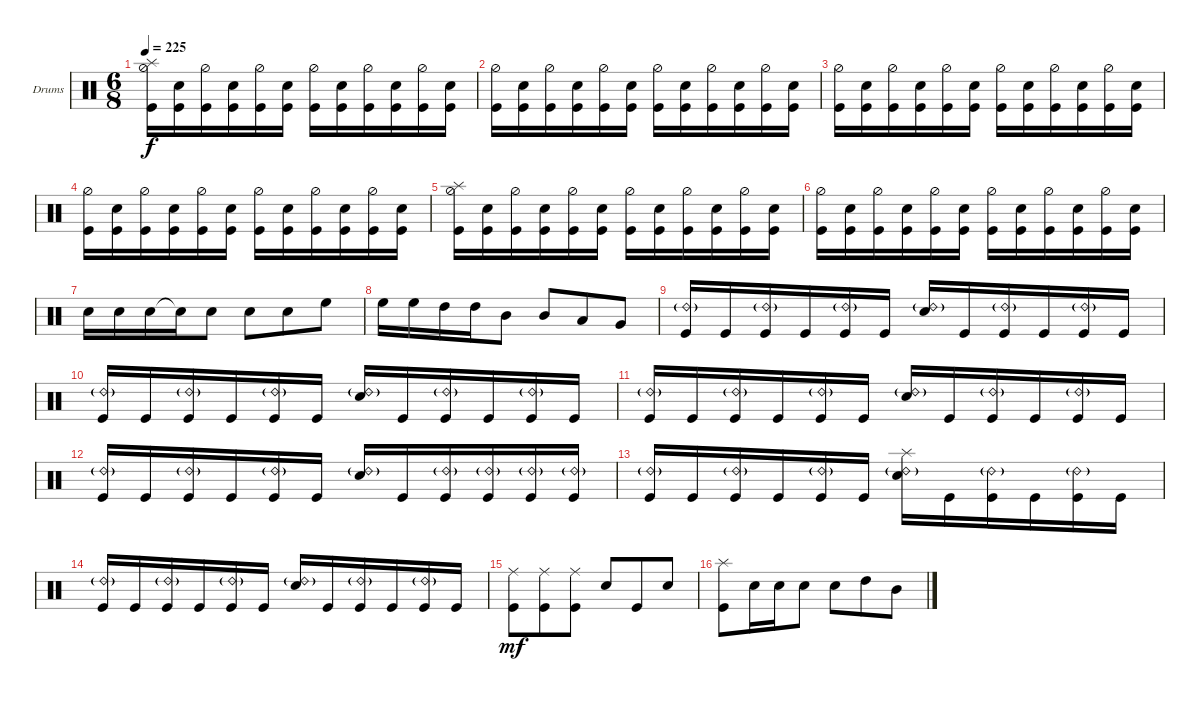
\bracketExtendMode groupsimilarinstruments
\firstSystemTrackNameOrientation horizontal
\otherSystemsTrackNameOrientation horizontal
\track ("Drumkit" "Drums") {solo instrument percussion}
\staff {score}
\articulation defaults
\ts (6 8)
\tempo 225
\clef neutral
\ks c
("Kick (hit)" "Hi-Hat (half)" "Splash (hit)").16{dy f} ("Kick (hit)" "Snare (hit) 2").16 ("Kick (hit)" "Hi-Hat (half)").16 ("Kick (hit)" "Snare (hit) 2").16 ("Kick (hit)" "Hi-Hat (half)").16 ("Kick (hit)" "Snare (hit) 2").16 ("Kick (hit)" "Hi-Hat (half)").16 ("Kick (hit)" "Snare (hit) 2").16 ("Kick (hit)" "Hi-Hat (half)").16 ("Kick (hit)" "Snare (hit) 2").16 ("Kick (hit)" "Hi-Hat (half)").16 ("Kick (hit)" "Snare (hit) 2").16 |
("Kick (hit)" "Hi-Hat (half)").16 ("Kick (hit)" "Snare (hit) 2").16 ("Kick (hit)" "Hi-Hat (half)").16 ("Kick (hit)" "Snare (hit) 2").16 ("Kick (hit)" "Hi-Hat (half)").16 ("Kick (hit)" "Snare (hit) 2").16 ("Kick (hit)" "Hi-Hat (half)").16 ("Kick (hit)" "Snare (hit) 2").16 ("Kick (hit)" "Hi-Hat (half)").16 ("Kick (hit)" "Snare (hit) 2").16 ("Kick (hit)" "Hi-Hat (half)").16 ("Kick (hit)" "Snare (hit) 2").16 |
("Kick (hit)" "Hi-Hat (half)").16 ("Kick (hit)" "Snare (hit) 2").16 ("Kick (hit)" "Hi-Hat (half)").16 ("Kick (hit)" "Snare (hit) 2").16 ("Kick (hit)" "Hi-Hat (half)").16 ("Kick (hit)" "Snare (hit) 2").16 ("Kick (hit)" "Hi-Hat (half)").16 ("Kick (hit)" "Snare (hit) 2").16 ("Kick (hit)" "Hi-Hat (half)").16 ("Kick (hit)" "Snare (hit) 2").16 ("Kick (hit)" "Hi-Hat (half)").16 ("Kick (hit)" "Snare (hit) 2").16 |
("Kick (hit)" "Hi-Hat (half)").16 ("Kick (hit)" "Snare (hit) 2").16 ("Kick (hit)" "Hi-Hat (half)").16 ("Kick (hit)" "Snare (hit) 2").16 ("Kick (hit)" "Hi-Hat (half)").16 ("Kick (hit)" "Snare (hit) 2").16 ("Kick (hit)" "Hi-Hat (half)").16 ("Kick (hit)" "Snare (hit) 2").16 ("Kick (hit)" "Hi-Hat (half)").16 ("Kick (hit)" "Snare (hit) 2").16 ("Kick (hit)" "Hi-Hat (half)").16 ("Kick (hit)" "Snare (hit) 2").16 |
("Kick (hit)" "Hi-Hat (half)" "Splash (hit)").16 ("Kick (hit)" "Snare (hit) 2").16 ("Kick (hit)" "Hi-Hat (half)").16 ("Kick (hit)" "Snare (hit) 2").16 ("Kick (hit)" "Hi-Hat (half)").16 ("Kick (hit)" "Snare (hit) 2").16 ("Kick (hit)" "Hi-Hat (half)").16 ("Kick (hit)" "Snare (hit) 2").16 ("Kick (hit)" "Hi-Hat (half)").16 ("Kick (hit)" "Snare (hit) 2").16 ("Kick (hit)" "Hi-Hat (half)").16 ("Kick (hit)" "Snare (hit) 2").16 |
("Kick (hit)" "Hi-Hat (half)").16 ("Kick (hit)" "Snare (hit) 2").16 ("Kick (hit)" "Hi-Hat (half)").16 ("Kick (hit)" "Snare (hit) 2").16 ("Kick (hit)" "Hi-Hat (half)").16 ("Kick (hit)" "Snare (hit) 2").16 ("Kick (hit)" "Hi-Hat (half)").16 ("Kick (hit)" "Snare (hit) 2").16 ("Kick (hit)" "Hi-Hat (half)").16 ("Kick (hit)" "Snare (hit) 2").16 ("Kick (hit)" "Hi-Hat (half)").16 ("Kick (hit)" "Snare (hit) 2").16 |
"Snare (hit) 2".16 "Snare (hit) 2".16 "Snare (hit) 2".16 "Snare (hit) 2"{t}.16 "Snare (hit) 2".8 "Snare (hit) 2".8 "Snare (hit) 2".8 "High Floor Tom (hit)".8 |
"High Floor Tom (hit)".16 "High Floor Tom (hit)".16 "High Tom (hit)".16 "High Tom (hit)".16 "Mid Tom (hit)".8 "Mid Tom (hit)".8 "Low Tom (hit)".8 "Very Low Tom (hit)".8 |
("Kick (hit)" "Ride (bell) 2"{g}).16 "Kick (hit)".16 ("Kick (hit)" "Ride (bell) 2"{g}).16 "Kick (hit)".16 ("Kick (hit)" "Ride (bell) 2"{g}).16 "Kick (hit)".16 ("Snare (hit) 2" "Ride (bell) 2"{g}).16 "Kick (hit)".16 ("Kick (hit)" "Ride (bell) 2"{g}).16 "Kick (hit)".16 ("Kick (hit)" "Ride (bell) 2"{g}).16 "Kick (hit)".16 |
("Kick (hit)" "Ride (bell) 2"{g}).16 "Kick (hit)".16 ("Kick (hit)" "Ride (bell) 2"{g}).16 "Kick (hit)".16 ("Kick (hit)" "Ride (bell) 2"{g}).16 "Kick (hit)".16 ("Snare (hit) 2" "Ride (bell) 2"{g}).16 "Kick (hit)".16 ("Kick (hit)" "Ride (bell) 2"{g}).16 "Kick (hit)".16 ("Kick (hit)" "Ride (bell) 2"{g}).16 "Kick (hit)".16 |
("Kick (hit)" "Ride (bell) 2"{g}).16 "Kick (hit)".16 ("Kick (hit)" "Ride (bell) 2"{g}).16 "Kick (hit)".16 ("Kick (hit)" "Ride (bell) 2"{g}).16 "Kick (hit)".16 ("Snare (hit) 2" "Ride (bell) 2"{g}).16 "Kick (hit)".16 ("Kick (hit)" "Ride (bell) 2"{g}).16 "Kick (hit)".16 ("Kick (hit)" "Ride (bell) 2"{g}).16 "Kick (hit)".16 |
("Kick (hit)" "Ride (bell) 2"{g}).16 "Kick (hit)".16 ("Kick (hit)" "Ride (bell) 2"{g}).16 "Kick (hit)".16 ("Kick (hit)" "Ride (bell) 2"{g}).16 "Kick (hit)".16 ("Snare (hit) 2" "Ride (bell) 2"{g}).16 "Kick (hit)".16 ("Kick (hit)" "Ride (bell) 2"{g}).16 ("Kick (hit)" "Ride (bell) 2"{g}).16 ("Kick (hit)" "Ride (bell) 2"{g}).16 ("Kick (hit)" "Ride (bell) 2"{g}).16 |
("Kick (hit)" "Ride (bell) 2"{g}).16 "Kick (hit)".16 ("Kick (hit)" "Ride (bell) 2"{g}).16 "Kick (hit)".16 ("Kick (hit)" "Ride (bell) 2"{g}).16 "Kick (hit)".16 ("Snare (hit) 2" "Ride (bell) 2"{g} "Splash (hit)").16 "Kick (hit)".16 ("Kick (hit)" "Ride (bell) 2"{g}).16 "Kick (hit)".16 ("Kick (hit)" "Ride (bell) 2"{g}).16 "Kick (hit)".16 |
("Kick (hit)" "Ride (bell) 2"{g}).16 "Kick (hit)".16 ("Kick (hit)" "Ride (bell) 2"{g}).16 "Kick (hit)".16 ("Kick (hit)" "Ride (bell) 2"{g}).16 "Kick (hit)".16 ("Snare (hit) 2" "Ride (bell) 2"{g}).16 "Kick (hit)".16 ("Kick (hit)" "Ride (bell) 2"{g}).16 "Kick (hit)".16 ("Kick (hit)" "Ride (bell) 2"{g}).16 "Kick (hit)".16 |
("Kick (hit)" "Ride (middle)").8{dy mf} ("Kick (hit)" "Ride (middle)").8 ("Kick (hit)" "Ride (middle)").8 "Snare (hit) 2".8 "Kick (hit)".8 "Snare (hit) 2".8 |
("Kick (hit)" "Splash (hit)").8 "Snare (hit) 2".16 "Snare (hit) 2".16 "Snare (hit) 2".8 "Snare (hit) 2".8 "High Tom (hit)".8 "Mid Tom (hit)".8
